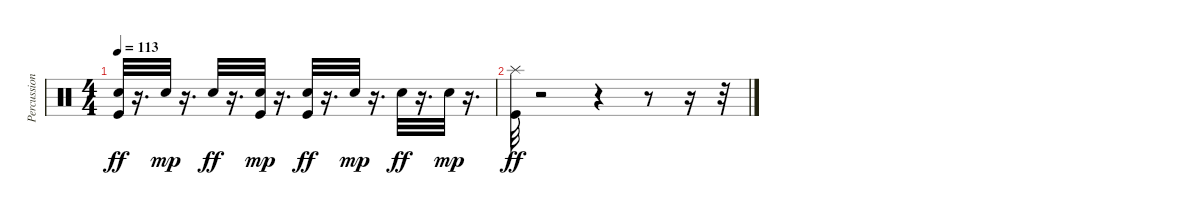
\track ("Percussions" "Percussion") {instrument percussion}
\staff {score}
\articulation defaults
\ts (4 4)
\tempo 113
\clef neutral
\ks c
("Kick (hit)" "Snare (hit) 2").32{dy ff} r.16{d} "Snare (hit) 2".32{dy mp} r.16{d} "Hand Clap (hit)".32{dy ff} r.16{d} ("Kick (hit)" "Snare (hit) 2").32{dy mp} r.16{d} ("Kick (hit)" "Snare (hit) 2").32{dy ff} r.16{d} "Snare (hit) 2".32{dy mp} r.16{d} "Hand Clap (hit)".32{dy ff} r.16{d} "Snare (hit) 2".32{dy mp} r.16{d} |
("Kick (hit)" "Splash (hit)").32{dy ff} r.2 r.4 r.8 r.16 r.32
